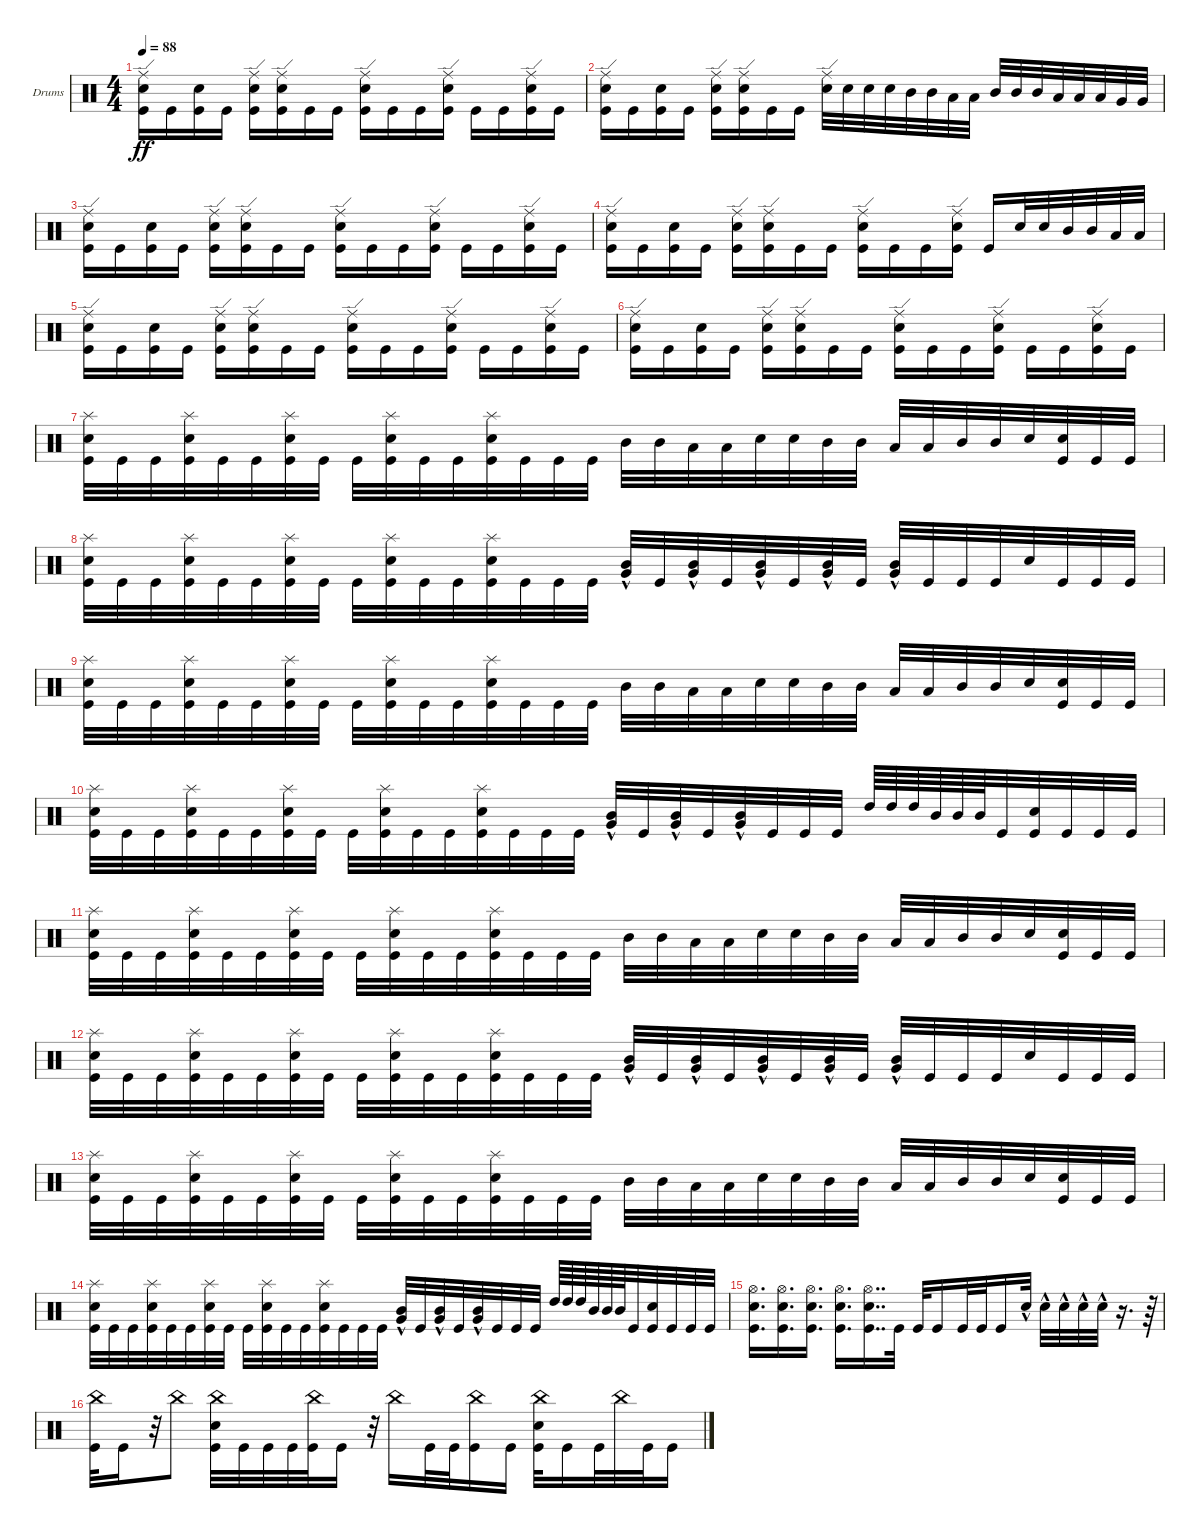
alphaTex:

\defaultSystemsLayout 4
\bracketExtendMode groupsimilarinstruments
\firstSystemTrackNameOrientation horizontal
\otherSystemsTrackNameOrientation horizontal
\track ("Drumkit" "Drums") {instrument percussion}
\staff {score}
\articulation defaults
\ts (4 4)
\tempo 88
\clef neutral
\ks c
("Kick (hit)" "Snare (hit) 2" "Ride (edge)").16{dy ff} "Kick (hit)".16 ("Kick (hit)" "Snare (hit) 2").16 "Kick (hit)".16 ("Kick (hit)" "Snare (hit) 2" "Ride (edge)").16 ("Kick (hit)" "Snare (hit) 2" "Ride (edge)").16 "Kick (hit)".16 "Kick (hit)".16 ("Kick (hit)" "Snare (hit) 2" "Ride (edge)").16 "Kick (hit)".16 "Kick (hit)".16 ("Kick (hit)" "Snare (hit) 2" "Ride (edge)").16 "Kick (hit)".16 "Kick (hit)".16 ("Kick (hit)" "Snare (hit) 2" "Ride (edge)").16 "Kick (hit)".16 |
("Kick (hit)" "Snare (hit) 2" "Ride (edge)").16 "Kick (hit)".16 ("Kick (hit)" "Snare (hit) 2").16 "Kick (hit)".16 ("Kick (hit)" "Snare (hit) 2" "Ride (edge)").16 ("Kick (hit)" "Snare (hit) 2" "Ride (edge)").16 "Kick (hit)".16 "Kick (hit)".16 ("Snare (hit) 2" "Ride (edge)").32 "Snare (hit) 2".32 "Snare (hit) 2".32 "Snare (hit) 2".32 "Mid Tom (hit)".32 "Mid Tom (hit)".32 "Low Tom (hit)".32 "Low Tom (hit)".32 "Mid Tom (hit)".32 "Mid Tom (hit)".32 "Mid Tom (hit)".32 "Low Tom (hit)".32 "Low Tom (hit)".32 "Low Tom (hit)".32 "Very Low Tom (hit)".32 "Very Low Tom (hit)".32 |
("Kick (hit)" "Snare (hit) 2" "Ride (edge)").16 "Kick (hit)".16 ("Kick (hit)" "Snare (hit) 2").16 "Kick (hit)".16 ("Kick (hit)" "Snare (hit) 2" "Ride (edge)").16 ("Kick (hit)" "Snare (hit) 2" "Ride (edge)").16 "Kick (hit)".16 "Kick (hit)".16 ("Kick (hit)" "Snare (hit) 2" "Ride (edge)").16 "Kick (hit)".16 "Kick (hit)".16 ("Kick (hit)" "Snare (hit) 2" "Ride (edge)").16 "Kick (hit)".16 "Kick (hit)".16 ("Kick (hit)" "Snare (hit) 2" "Ride (edge)").16 "Kick (hit)".16 |
("Kick (hit)" "Snare (hit) 2" "Ride (edge)").16 "Kick (hit)".16 ("Kick (hit)" "Snare (hit) 2").16 "Kick (hit)".16 ("Kick (hit)" "Snare (hit) 2" "Ride (edge)").16 ("Kick (hit)" "Snare (hit) 2" "Ride (edge)").16 "Kick (hit)".16 "Kick (hit)".16 ("Kick (hit)" "Snare (hit) 2" "Ride (edge)").16 "Kick (hit)".16 "Kick (hit)".16 ("Kick (hit)" "Snare (hit) 2" "Ride (edge)").16 "Kick (hit)".16 "Snare (hit) 2".32 "Snare (hit) 2".32 "Mid Tom (hit)".32 "Mid Tom (hit)".32 "Low Tom (hit)".32 "Low Tom (hit)".32 |
("Kick (hit)" "Snare (hit) 2" "Ride (edge)").16 "Kick (hit)".16 ("Kick (hit)" "Snare (hit) 2").16 "Kick (hit)".16 ("Kick (hit)" "Snare (hit) 2" "Ride (edge)").16 ("Kick (hit)" "Snare (hit) 2" "Ride (edge)").16 "Kick (hit)".16 "Kick (hit)".16 ("Kick (hit)" "Snare (hit) 2" "Ride (edge)").16 "Kick (hit)".16 "Kick (hit)".16 ("Kick (hit)" "Snare (hit) 2" "Ride (edge)").16 "Kick (hit)".16 "Kick (hit)".16 ("Kick (hit)" "Snare (hit) 2" "Ride (edge)").16 "Kick (hit)".16 |
("Kick (hit)" "Snare (hit) 2" "Ride (edge)").16 "Kick (hit)".16 ("Kick (hit)" "Snare (hit) 2").16 "Kick (hit)".16 ("Kick (hit)" "Snare (hit) 2" "Ride (edge)").16 ("Kick (hit)" "Snare (hit) 2" "Ride (edge)").16 "Kick (hit)".16 "Kick (hit)".16 ("Kick (hit)" "Snare (hit) 2" "Ride (edge)").16 "Kick (hit)".16 "Kick (hit)".16 ("Kick (hit)" "Snare (hit) 2" "Ride (edge)").16 "Kick (hit)".16 "Kick (hit)".16 ("Kick (hit)" "Snare (hit) 2" "Ride (edge)").16 "Kick (hit)".16 |
("Kick (hit)" "Snare (hit) 2" "Splash (hit)").32 "Kick (hit)".32 "Kick (hit)".32 ("Kick (hit)" "Snare (hit) 2" "Splash (hit)").32 "Kick (hit)".32 "Kick (hit)".32 ("Kick (hit)" "Snare (hit) 2" "Splash (hit)").32 "Kick (hit)".32 "Kick (hit)".32 ("Kick (hit)" "Snare (hit) 2" "Splash (hit)").32 "Kick (hit)".32 "Kick (hit)".32 ("Kick (hit)" "Snare (hit) 2" "Splash (hit)").32 "Kick (hit)".32 "Kick (hit)".32 "Kick (hit)".32 "Mid Tom (hit)".32 "Mid Tom (hit)".32 "Low Tom (hit)".32 "Low Tom (hit)".32 "Snare (hit) 2".32 "Snare (hit) 2".32 "Mid Tom (hit)".32 "Mid Tom (hit)".32 "Low Tom (hit)".32 "Low Tom (hit)".32 "Mid Tom (hit)".32 "Mid Tom (hit)".32 "Snare (hit) 2".32 ("Kick (hit)" "Snare (hit) 2").32 "Kick (hit)".32 "Kick (hit)".32 |
("Snare (hit) 2" "Kick (hit)" "Splash (hit)").32 "Kick (hit)".32 "Kick (hit)".32 ("Kick (hit)" "Snare (hit) 2" "Splash (hit)").32 "Kick (hit)".32 "Kick (hit)".32 ("Kick (hit)" "Snare (hit) 2" "Splash (hit)").32 "Kick (hit)".32 "Kick (hit)".32 ("Kick (hit)" "Snare (hit) 2" "Splash (hit)").32 "Kick (hit)".32 "Kick (hit)".32 ("Kick (hit)" "Snare (hit) 2" "Splash (hit)").32 "Kick (hit)".32 "Kick (hit)".32 "Kick (hit)".32 ("Mid Tom (hit)"{hac} "Very Low Tom (hit)"{hac}).32 "Kick (hit)".32 ("Mid Tom (hit)"{hac} "Very Low Tom (hit)"{hac}).32 "Kick (hit)".32 ("Mid Tom (hit)"{hac} "Very Low Tom (hit)"{hac}).32 "Kick (hit)".32 ("Mid Tom (hit)"{hac} "Very Low Tom (hit)"{hac}).32 "Kick (hit)".32 ("Mid Tom (hit)"{hac} "Very Low Tom (hit)"{hac}).32 "Kick (hit)".32 "Kick (hit)".32 "Kick (hit)".32 "Snare (hit) 2".32 "Kick (hit)".32 "Kick (hit)".32 "Kick (hit)".32 |
("Kick (hit)" "Snare (hit) 2" "Splash (hit)").32 "Kick (hit)".32 "Kick (hit)".32 ("Kick (hit)" "Snare (hit) 2" "Splash (hit)").32 "Kick (hit)".32 "Kick (hit)".32 ("Kick (hit)" "Snare (hit) 2" "Splash (hit)").32 "Kick (hit)".32 "Kick (hit)".32 ("Kick (hit)" "Snare (hit) 2" "Splash (hit)").32 "Kick (hit)".32 "Kick (hit)".32 ("Kick (hit)" "Snare (hit) 2" "Splash (hit)").32 "Kick (hit)".32 "Kick (hit)".32 "Kick (hit)".32 "Mid Tom (hit)".32 "Mid Tom (hit)".32 "Low Tom (hit)".32 "Low Tom (hit)".32 "Snare (hit) 2".32 "Snare (hit) 2".32 "Mid Tom (hit)".32 "Mid Tom (hit)".32 "Low Tom (hit)".32 "Low Tom (hit)".32 "Mid Tom (hit)".32 "Mid Tom (hit)".32 "Snare (hit) 2".32 ("Kick (hit)" "Snare (hit) 2").32 "Kick (hit)".32 "Kick (hit)".32 |
("Snare (hit) 2" "Kick (hit)" "Splash (hit)").32 "Kick (hit)".32 "Kick (hit)".32 ("Kick (hit)" "Snare (hit) 2" "Splash (hit)").32 "Kick (hit)".32 "Kick (hit)".32 ("Kick (hit)" "Snare (hit) 2" "Splash (hit)").32 "Kick (hit)".32 "Kick (hit)".32 ("Kick (hit)" "Snare (hit) 2" "Splash (hit)").32 "Kick (hit)".32 "Kick (hit)".32 ("Kick (hit)" "Snare (hit) 2" "Splash (hit)").32 "Kick (hit)".32 "Kick (hit)".32 "Kick (hit)".32 ("Mid Tom (hit)"{hac} "Very Low Tom (hit)"{hac}).32 "Kick (hit)".32 ("Mid Tom (hit)"{hac} "Very Low Tom (hit)"{hac}).32 "Kick (hit)".32 ("Mid Tom (hit)"{hac} "Very Low Tom (hit)"{hac}).32 "Kick (hit)".32 "Kick (hit)".32 "Kick (hit)".32 "High Tom (hit)".64 "High Tom (hit)".64 "High Tom (hit)".64 "Mid Tom (hit)".64 "Mid Tom (hit)".64 "Mid Tom (hit)".64 "Kick (hit)".32 ("Kick (hit)" "Snare (hit) 2").32 "Kick (hit)".32 "Kick (hit)".32 "Kick (hit)".32 |
("Kick (hit)" "Snare (hit) 2" "Splash (hit)").32 "Kick (hit)".32 "Kick (hit)".32 ("Kick (hit)" "Snare (hit) 2" "Splash (hit)").32 "Kick (hit)".32 "Kick (hit)".32 ("Kick (hit)" "Snare (hit) 2" "Splash (hit)").32 "Kick (hit)".32 "Kick (hit)".32 ("Kick (hit)" "Snare (hit) 2" "Splash (hit)").32 "Kick (hit)".32 "Kick (hit)".32 ("Kick (hit)" "Snare (hit) 2" "Splash (hit)").32 "Kick (hit)".32 "Kick (hit)".32 "Kick (hit)".32 "Mid Tom (hit)".32 "Mid Tom (hit)".32 "Low Tom (hit)".32 "Low Tom (hit)".32 "Snare (hit) 2".32 "Snare (hit) 2".32 "Mid Tom (hit)".32 "Mid Tom (hit)".32 "Low Tom (hit)".32 "Low Tom (hit)".32 "Mid Tom (hit)".32 "Mid Tom (hit)".32 "Snare (hit) 2".32 ("Kick (hit)" "Snare (hit) 2").32 "Kick (hit)".32 "Kick (hit)".32 |
("Snare (hit) 2" "Kick (hit)" "Splash (hit)").32 "Kick (hit)".32 "Kick (hit)".32 ("Kick (hit)" "Snare (hit) 2" "Splash (hit)").32 "Kick (hit)".32 "Kick (hit)".32 ("Kick (hit)" "Snare (hit) 2" "Splash (hit)").32 "Kick (hit)".32 "Kick (hit)".32 ("Kick (hit)" "Snare (hit) 2" "Splash (hit)").32 "Kick (hit)".32 "Kick (hit)".32 ("Kick (hit)" "Snare (hit) 2" "Splash (hit)").32 "Kick (hit)".32 "Kick (hit)".32 "Kick (hit)".32 ("Mid Tom (hit)"{hac} "Very Low Tom (hit)"{hac}).32 "Kick (hit)".32 ("Mid Tom (hit)"{hac} "Very Low Tom (hit)"{hac}).32 "Kick (hit)".32 ("Mid Tom (hit)"{hac} "Very Low Tom (hit)"{hac}).32 "Kick (hit)".32 ("Mid Tom (hit)"{hac} "Very Low Tom (hit)"{hac}).32 "Kick (hit)".32 ("Mid Tom (hit)"{hac} "Very Low Tom (hit)"{hac}).32 "Kick (hit)".32 "Kick (hit)".32 "Kick (hit)".32 "Snare (hit) 2".32 "Kick (hit)".32 "Kick (hit)".32 "Kick (hit)".32 |
("Kick (hit)" "Snare (hit) 2" "Splash (hit)").32 "Kick (hit)".32 "Kick (hit)".32 ("Kick (hit)" "Snare (hit) 2" "Splash (hit)").32 "Kick (hit)".32 "Kick (hit)".32 ("Kick (hit)" "Snare (hit) 2" "Splash (hit)").32 "Kick (hit)".32 "Kick (hit)".32 ("Kick (hit)" "Snare (hit) 2" "Splash (hit)").32 "Kick (hit)".32 "Kick (hit)".32 ("Kick (hit)" "Snare (hit) 2" "Splash (hit)").32 "Kick (hit)".32 "Kick (hit)".32 "Kick (hit)".32 "Mid Tom (hit)".32 "Mid Tom (hit)".32 "Low Tom (hit)".32 "Low Tom (hit)".32 "Snare (hit) 2".32 "Snare (hit) 2".32 "Mid Tom (hit)".32 "Mid Tom (hit)".32 "Low Tom (hit)".32 "Low Tom (hit)".32 "Mid Tom (hit)".32 "Mid Tom (hit)".32 "Snare (hit) 2".32 ("Kick (hit)" "Snare (hit) 2").32 "Kick (hit)".32 "Kick (hit)".32 |
("Snare (hit) 2" "Kick (hit)" "Splash (hit)").32 "Kick (hit)".32 "Kick (hit)".32 ("Kick (hit)" "Snare (hit) 2" "Splash (hit)").32 "Kick (hit)".32 "Kick (hit)".32 ("Kick (hit)" "Snare (hit) 2" "Splash (hit)").32 "Kick (hit)".32 "Kick (hit)".32 ("Kick (hit)" "Snare (hit) 2" "Splash (hit)").32 "Kick (hit)".32 "Kick (hit)".32 ("Kick (hit)" "Snare (hit) 2" "Splash (hit)").32 "Kick (hit)".32 "Kick (hit)".32 "Kick (hit)".32 ("Mid Tom (hit)"{hac} "Very Low Tom (hit)"{hac}).32 "Kick (hit)".32 ("Mid Tom (hit)"{hac} "Very Low Tom (hit)"{hac}).32 "Kick (hit)".32 ("Mid Tom (hit)"{hac} "Very Low Tom (hit)"{hac}).32 "Kick (hit)".32 "Kick (hit)".32 "Kick (hit)".32 "High Tom (hit)".64 "High Tom (hit)".64 "High Tom (hit)".64 "Mid Tom (hit)".64 "Mid Tom (hit)".64 "Mid Tom (hit)".64 "Kick (hit)".32 ("Kick (hit)" "Snare (hit) 2").32 "Kick (hit)".32 "Kick (hit)".32 "Kick (hit)".32 |
("Kick (hit)" "Snare (hit) 2" "Hi-Hat (open)").16{d} ("Snare (hit) 2" "Kick (hit)" "Hi-Hat (open)").16{d} ("Snare (hit) 2" "Kick (hit)" "Hi-Hat (open)").16{d} ("Snare (hit) 2" "Kick (hit)" "Hi-Hat (open)").16{d} ("Snare (hit) 2" "Kick (hit)" "Hi-Hat (open)").16{dd} "Kick (hit)".32 "Kick (hit)".32 "Kick (hit)".16 "Kick (hit)".32 "Kick (hit)".32 "Kick (hit)".16 "Snare (hit) 2"{hac}.32 "Snare (hit) 2"{hac}.32 "Snare (hit) 2"{hac}.32 "Snare (hit) 2"{hac}.32 "Snare (hit) 2"{hac}.32 r.16{d} r.64 |
("Kick (hit)" "China (hit)").32 "Kick (hit)".16 r.32 "China (hit)".8 ("Kick (hit)" "China (hit)" "Snare (hit) 2").32 "Kick (hit)".32 "Kick (hit)".32 "Kick (hit)".32 ("Kick (hit)" "China (hit)").32 "Kick (hit)".16 r.32 "China (hit)".16 "Kick (hit)".32 "Kick (hit)".32 ("Kick (hit)" "China (hit)").16 "Kick (hit)".16 ("Kick (hit)" "China (hit)" "Snare (hit) 2").32 "Kick (hit)".16 "Kick (hit)".32 "China (hit)".32 "Kick (hit)".32 "Kick (hit)".16
